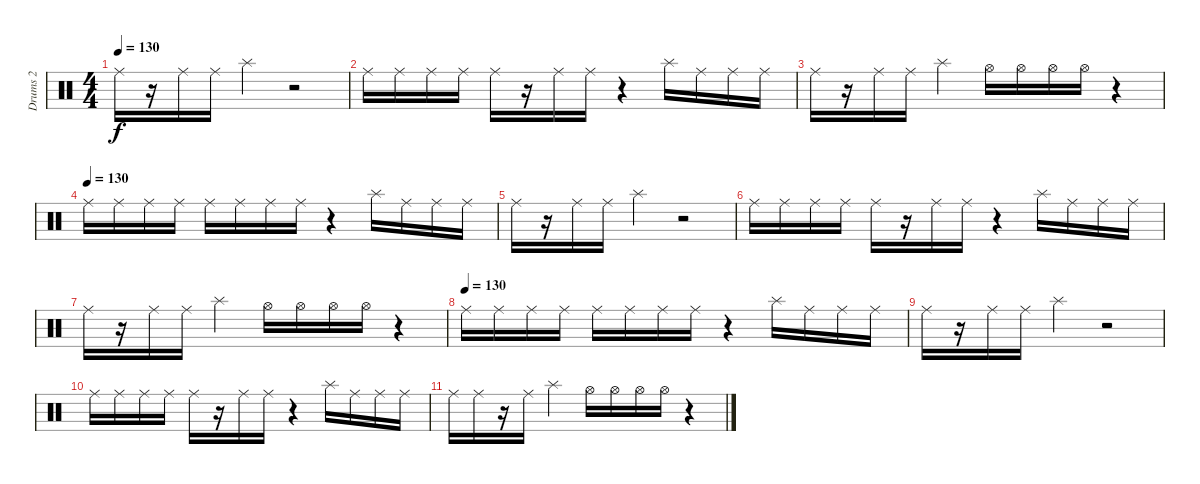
\track ("Drums 2" "Drums 2") {instrument percussion}
\staff {score}
\articulation defaults
\ts (4 4)
\tempo 130
\clef neutral
\ks c "Ride (middle)".16{dy f}
r.16 "Ride (middle)".16 "Ride (middle)".16 "Splash (hit)".4 r.2 |
"Ride (middle)".16 "Ride (middle)".16 "Ride (middle)".16 "Ride (middle)".16 "Ride (middle)".16 r.16 "Ride (middle)".16 "Ride (middle)".16 r.4 "Splash (hit)".16 "Ride (middle)".16 "Ride (middle)".16 "Ride (middle)".16 |
"Ride (middle)".16 r.16 "Ride (middle)".16 "Ride (middle)".16 "Splash (hit)".4 "Hi-Hat (open)".16 "Hi-Hat (open)".16 "Hi-Hat (open)".16 "Hi-Hat (open)".16 r.4 |
\tempo (130)
"Ride (middle)".16 "Ride (middle)".16 "Ride (middle)".16 "Ride (middle)".16 "Ride (middle)".16 "Ride (middle)".16 "Ride (middle)".16 "Ride (middle)".16 r.4 "Splash (hit)".16 "Ride (middle)".16 "Ride (middle)".16 "Ride (middle)".16 |
"Ride (middle)".16 r.16 "Ride (middle)".16 "Ride (middle)".16 "Splash (hit)".4 r.2 |
"Ride (middle)".16 "Ride (middle)".16 "Ride (middle)".16 "Ride (middle)".16 "Ride (middle)".16 r.16 "Ride (middle)".16 "Ride (middle)".16 r.4 "Splash (hit)".16 "Ride (middle)".16 "Ride (middle)".16 "Ride (middle)".16 |
"Ride (middle)".16 r.16 "Ride (middle)".16 "Ride (middle)".16 "Splash (hit)".4 "Hi-Hat (open)".16 "Hi-Hat (open)".16 "Hi-Hat (open)".16 "Hi-Hat (open)".16 r.4 |
\tempo (130)
"Ride (middle)".16 "Ride (middle)".16 "Ride (middle)".16 "Ride (middle)".16 "Ride (middle)".16 "Ride (middle)".16 "Ride (middle)".16 "Ride (middle)".16 r.4 "Splash (hit)".16 "Ride (middle)".16 "Ride (middle)".16 "Ride (middle)".16 |
"Ride (middle)".16 r.16 "Ride (middle)".16 "Ride (middle)".16 "Splash (hit)".4 r.2 |
"Ride (middle)".16 "Ride (middle)".16 "Ride (middle)".16 "Ride (middle)".16 "Ride (middle)".16 r.16 "Ride (middle)".16 "Ride (middle)".16 r.4 "Splash (hit)".16 "Ride (middle)".16 "Ride (middle)".16 "Ride (middle)".16 |
"Ride (middle)".16 "Ride (middle)".16 r.16 "Ride (middle)".16 "Splash (hit)".4 "Hi-Hat (open)".16 "Hi-Hat (open)".16 "Hi-Hat (open)".16 "Hi-Hat (open)".16 r.4
